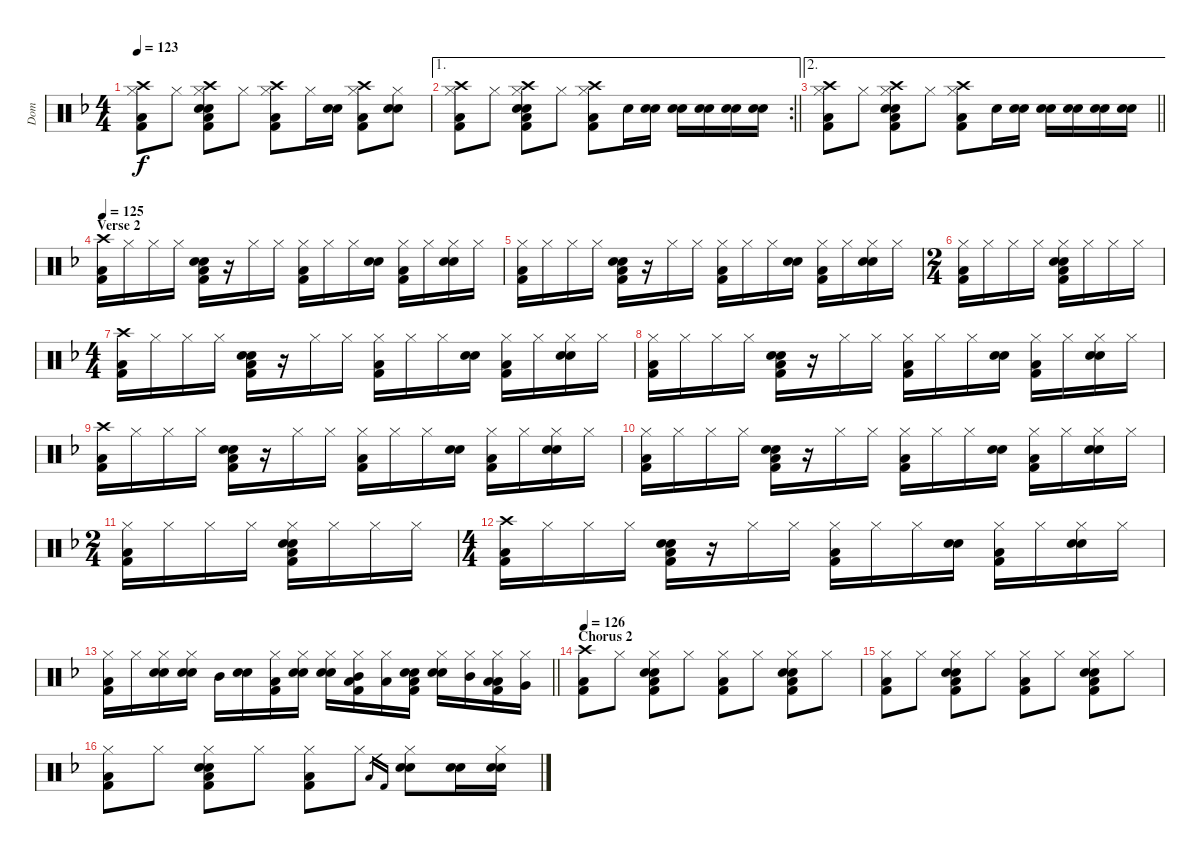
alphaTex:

\track ("Dom" "Dom") {instrument percussion}
\staff {score}
\articulation defaults
\ts (4 4)
\tempo 123
\clef neutral
\ks f
("Crash high (hit)" "Hi-Hat (closed)" "Low Floor Tom (hit)" "Kick (hit) 2").8{dy f} "Hi-Hat (closed)".8 ("Crash high (hit)" "Hi-Hat (closed)" "Snare (hit) 2" "Electric Snare (hit)" "Low Floor Tom (hit)" "Kick (hit) 2").8 "Hi-Hat (closed)".8 ("Crash high (hit)" "Hi-Hat (closed)" "Low Floor Tom (hit)" "Kick (hit) 2").8 "Hi-Hat (closed)".16 ("Snare (hit) 2" "Electric Snare (hit)").16 ("Crash high (hit)" "Hi-Hat (closed)" "Low Floor Tom (hit)" "Kick (hit) 2").8 ("Hi-Hat (closed)" "Snare (hit) 2" "Electric Snare (hit)").8 |
\ae 1
\rc 2
\barLineRight lightlight
("Crash high (hit)" "Hi-Hat (closed)" "Low Floor Tom (hit)" "Kick (hit) 2").8 "Hi-Hat (closed)".8 ("Crash high (hit)" "Hi-Hat (closed)" "Snare (hit) 2" "Electric Snare (hit)" "Low Floor Tom (hit)" "Kick (hit) 2").8 "Hi-Hat (closed)".8 ("Crash high (hit)" "Hi-Hat (closed)" "Low Floor Tom (hit)" "Kick (hit) 2").8 "Electric Snare (hit)".16 ("Snare (hit) 2" "Electric Snare (hit)").16 ("Snare (hit) 2" "Electric Snare (hit)").16 ("Snare (hit) 2" "Electric Snare (hit)").16 ("Snare (hit) 2" "Electric Snare (hit)").16 ("Snare (hit) 2" "Electric Snare (hit)").16 |
\ae 2
\barLineRight lightlight
("Crash high (hit)" "Hi-Hat (closed)" "Low Floor Tom (hit)" "Kick (hit) 2").8 "Hi-Hat (closed)".8 ("Crash high (hit)" "Hi-Hat (closed)" "Snare (hit) 2" "Electric Snare (hit)" "Low Floor Tom (hit)" "Kick (hit) 2").8 "Hi-Hat (closed)".8 ("Crash high (hit)" "Hi-Hat (closed)" "Low Floor Tom (hit)" "Kick (hit) 2").8 "Electric Snare (hit)".16 ("Snare (hit) 2" "Electric Snare (hit)").16 ("Snare (hit) 2" "Electric Snare (hit)").16 ("Snare (hit) 2" "Electric Snare (hit)").16 ("Snare (hit) 2" "Electric Snare (hit)").16 ("Snare (hit) 2" "Electric Snare (hit)").16 |
\section ("" "Verse 2")
\tempo 125
("Crash high (hit)" "Low Floor Tom (hit)" "Kick (hit) 2").16 "Hi-Hat (closed)".16 "Hi-Hat (closed)".16 "Hi-Hat (closed)".16 ("Snare (hit) 2" "Electric Snare (hit)" "Low Floor Tom (hit)" "Kick (hit) 2").16 r.16 "Hi-Hat (closed)".16 "Hi-Hat (closed)".16 ("Hi-Hat (closed)" "Low Floor Tom (hit)" "Kick (hit) 2").16 "Hi-Hat (closed)".16 "Hi-Hat (closed)".16 ("Snare (hit) 2" "Electric Snare (hit)").16 ("Hi-Hat (closed)" "Low Floor Tom (hit)" "Kick (hit) 2").16 "Hi-Hat (closed)".16 ("Hi-Hat (closed)" "Snare (hit) 2" "Electric Snare (hit)").16 "Hi-Hat (closed)".16 |
("Hi-Hat (closed)" "Low Floor Tom (hit)" "Kick (hit) 2").16 "Hi-Hat (closed)".16 "Hi-Hat (closed)".16 "Hi-Hat (closed)".16 ("Snare (hit) 2" "Electric Snare (hit)" "Low Floor Tom (hit)" "Kick (hit) 2").16 r.16 "Hi-Hat (closed)".16 "Hi-Hat (closed)".16 ("Hi-Hat (closed)" "Low Floor Tom (hit)" "Kick (hit) 2").16 "Hi-Hat (closed)".16 "Hi-Hat (closed)".16 ("Snare (hit) 2" "Electric Snare (hit)").16 ("Hi-Hat (closed)" "Low Floor Tom (hit)" "Kick (hit) 2").16 "Hi-Hat (closed)".16 ("Hi-Hat (closed)" "Snare (hit) 2" "Electric Snare (hit)").16 "Hi-Hat (closed)".16 |
\ts (2 4)
("Hi-Hat (closed)" "Low Floor Tom (hit)" "Kick (hit) 2").16 "Hi-Hat (closed)".16 "Hi-Hat (closed)".16 "Hi-Hat (closed)".16 ("Hi-Hat (closed)" "Snare (hit) 2" "Electric Snare (hit)" "Low Floor Tom (hit)" "Kick (hit) 2").16 "Hi-Hat (closed)".16 "Hi-Hat (closed)".16 "Hi-Hat (closed)".16 |
\ts (4 4)
("Crash high (hit)" "Low Floor Tom (hit)" "Kick (hit) 2").16 "Hi-Hat (closed)".16 "Hi-Hat (closed)".16 "Hi-Hat (closed)".16 ("Snare (hit) 2" "Electric Snare (hit)" "Low Floor Tom (hit)" "Kick (hit) 2").16 r.16 "Hi-Hat (closed)".16 "Hi-Hat (closed)".16 ("Hi-Hat (closed)" "Low Floor Tom (hit)" "Kick (hit) 2").16 "Hi-Hat (closed)".16 "Hi-Hat (closed)".16 ("Snare (hit) 2" "Electric Snare (hit)").16 ("Hi-Hat (closed)" "Low Floor Tom (hit)" "Kick (hit) 2").16 "Hi-Hat (closed)".16 ("Hi-Hat (closed)" "Snare (hit) 2" "Electric Snare (hit)").16 "Hi-Hat (closed)".16 |
("Hi-Hat (closed)" "Low Floor Tom (hit)" "Kick (hit) 2").16 "Hi-Hat (closed)".16 "Hi-Hat (closed)".16 "Hi-Hat (closed)".16 ("Snare (hit) 2" "Electric Snare (hit)" "Low Floor Tom (hit)" "Kick (hit) 2").16 r.16 "Hi-Hat (closed)".16 "Hi-Hat (closed)".16 ("Hi-Hat (closed)" "Low Floor Tom (hit)" "Kick (hit) 2").16 "Hi-Hat (closed)".16 "Hi-Hat (closed)".16 ("Snare (hit) 2" "Electric Snare (hit)").16 ("Hi-Hat (closed)" "Low Floor Tom (hit)" "Kick (hit) 2").16 "Hi-Hat (closed)".16 ("Hi-Hat (closed)" "Snare (hit) 2" "Electric Snare (hit)").16 "Hi-Hat (closed)".16 |
("Crash high (hit)" "Low Floor Tom (hit)" "Kick (hit) 2").16 "Hi-Hat (closed)".16 "Hi-Hat (closed)".16 "Hi-Hat (closed)".16 ("Snare (hit) 2" "Electric Snare (hit)" "Low Floor Tom (hit)" "Kick (hit) 2").16 r.16 "Hi-Hat (closed)".16 "Hi-Hat (closed)".16 ("Hi-Hat (closed)" "Low Floor Tom (hit)" "Kick (hit) 2").16 "Hi-Hat (closed)".16 "Hi-Hat (closed)".16 ("Snare (hit) 2" "Electric Snare (hit)").16 ("Hi-Hat (closed)" "Low Floor Tom (hit)" "Kick (hit) 2").16 "Hi-Hat (closed)".16 ("Hi-Hat (closed)" "Snare (hit) 2" "Electric Snare (hit)").16 "Hi-Hat (closed)".16 |
("Hi-Hat (closed)" "Low Floor Tom (hit)" "Kick (hit) 2").16 "Hi-Hat (closed)".16 "Hi-Hat (closed)".16 "Hi-Hat (closed)".16 ("Snare (hit) 2" "Electric Snare (hit)" "Low Floor Tom (hit)" "Kick (hit) 2").16 r.16 "Hi-Hat (closed)".16 "Hi-Hat (closed)".16 ("Hi-Hat (closed)" "Low Floor Tom (hit)" "Kick (hit) 2").16 "Hi-Hat (closed)".16 "Hi-Hat (closed)".16 ("Snare (hit) 2" "Electric Snare (hit)").16 ("Hi-Hat (closed)" "Low Floor Tom (hit)" "Kick (hit) 2").16 "Hi-Hat (closed)".16 ("Hi-Hat (closed)" "Snare (hit) 2" "Electric Snare (hit)").16 "Hi-Hat (closed)".16 |
\ts (2 4)
("Hi-Hat (closed)" "Low Floor Tom (hit)" "Kick (hit) 2").16 "Hi-Hat (closed)".16 "Hi-Hat (closed)".16 "Hi-Hat (closed)".16 ("Hi-Hat (closed)" "Snare (hit) 2" "Electric Snare (hit)" "Low Floor Tom (hit)" "Kick (hit) 2").16 "Hi-Hat (closed)".16 "Hi-Hat (closed)".16 "Hi-Hat (closed)".16 |
\ts (4 4)
("Crash high (hit)" "Low Floor Tom (hit)" "Kick (hit) 2").16 "Hi-Hat (closed)".16 "Hi-Hat (closed)".16 "Hi-Hat (closed)".16 ("Snare (hit) 2" "Electric Snare (hit)" "Low Floor Tom (hit)" "Kick (hit) 2").16 r.16 "Hi-Hat (closed)".16 "Hi-Hat (closed)".16 ("Hi-Hat (closed)" "Low Floor Tom (hit)" "Kick (hit) 2").16 "Hi-Hat (closed)".16 "Hi-Hat (closed)".16 ("Snare (hit) 2" "Electric Snare (hit)").16 ("Hi-Hat (closed)" "Low Floor Tom (hit)" "Kick (hit) 2").16 "Hi-Hat (closed)".16 ("Hi-Hat (closed)" "Snare (hit) 2" "Electric Snare (hit)").16 "Hi-Hat (closed)".16 |
\barLineRight lightlight
("Hi-Hat (closed)" "Low Floor Tom (hit)" "Kick (hit) 2").16 "Hi-Hat (closed)".16 ("Hi-Hat (closed)" "Snare (hit) 2" "Electric Snare (hit)").16 ("Hi-Hat (closed)" "Snare (hit) 2" "Electric Snare (hit)").16 "Mid Tom (hit)".16 ("Snare (hit) 2" "Electric Snare (hit)").16 ("Hi-Hat (closed)" "Low Floor Tom (hit)" "Kick (hit) 2").16 ("Hi-Hat (closed)" "Snare (hit) 2" "Electric Snare (hit)").16 ("Hi-Hat (closed)" "Snare (hit) 2" "Electric Snare (hit)").16 ("Hi-Hat (closed)" "Mid Tom (hit)" "Low Floor Tom (hit)" "Kick (hit) 2").16 ("Hi-Hat (closed)" "Low Tom (hit)").16 ("Snare (hit) 2" "Electric Snare (hit)" "Low Floor Tom (hit)" "Kick (hit) 2").16 ("Hi-Hat (closed)" "Snare (hit) 2" "Electric Snare (hit)").16 ("Hi-Hat (closed)" "Mid Tom (hit)").16 ("Hi-Hat (closed)" "Low Tom (hit)" "Low Floor Tom (hit)" "Kick (hit) 2").16 ("Hi-Hat (closed)" "Very Low Tom (hit)").16 |
\section ("" "Chorus 2")
\tempo 126
("Crash high (hit)" "Low Floor Tom (hit)" "Kick (hit) 2").8 "Hi-Hat (closed)".8 ("Hi-Hat (closed)" "Snare (hit) 2" "Electric Snare (hit)" "Low Floor Tom (hit)" "Kick (hit) 2").8 "Hi-Hat (closed)".8 ("Hi-Hat (closed)" "Low Floor Tom (hit)" "Kick (hit) 2").8 "Hi-Hat (closed)".8 ("Hi-Hat (closed)" "Snare (hit) 2" "Electric Snare (hit)" "Low Floor Tom (hit)" "Kick (hit) 2").8 "Hi-Hat (closed)".8 |
("Hi-Hat (closed)" "Low Floor Tom (hit)" "Kick (hit) 2").8 "Hi-Hat (closed)".8 ("Hi-Hat (closed)" "Snare (hit) 2" "Electric Snare (hit)" "Low Floor Tom (hit)" "Kick (hit) 2").8 "Hi-Hat (closed)".8 ("Hi-Hat (closed)" "Low Floor Tom (hit)" "Kick (hit) 2").8 "Hi-Hat (closed)".8 ("Hi-Hat (closed)" "Snare (hit) 2" "Electric Snare (hit)" "Low Floor Tom (hit)" "Kick (hit) 2").8 "Hi-Hat (closed)".8 |
("Hi-Hat (closed)" "Low Floor Tom (hit)" "Kick (hit) 2").8 "Hi-Hat (closed)".8 ("Hi-Hat (closed)" "Snare (hit) 2" "Electric Snare (hit)" "Low Floor Tom (hit)" "Kick (hit) 2").8 "Hi-Hat (closed)".8 ("Hi-Hat (closed)" "Low Floor Tom (hit)" "Kick (hit) 2").8 "Hi-Hat (closed)".8 "Low Floor Tom (hit)".16{gr} "Kick (hit) 2".16{gr} ("Hi-Hat (closed)" "Snare (hit) 2" "Electric Snare (hit)").8 ("Snare (hit) 2" "Electric Snare (hit)").16 ("Hi-Hat (closed)" "Snare (hit) 2" "Electric Snare (hit)").16
